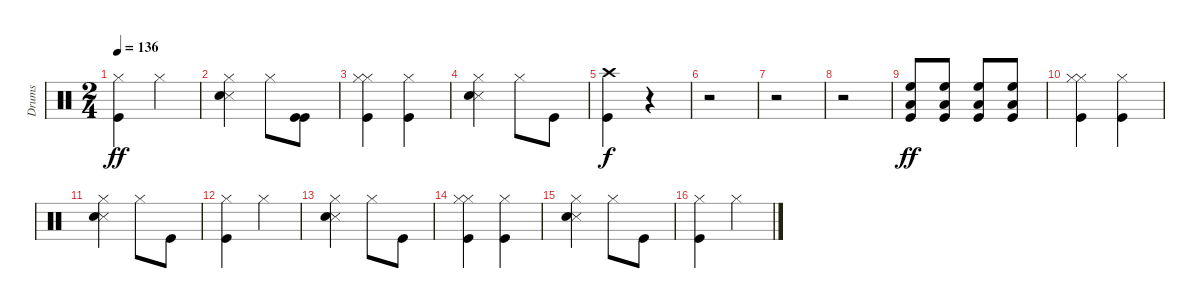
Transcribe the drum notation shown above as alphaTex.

\track ("Drums" "Drums") {instrument percussion}
\staff {score}
\articulation defaults
\ts (2 4)
\tempo 136
\clef neutral
\ks c
("Kick (hit)" "Hi-Hat (closed)").4{dy ff} "Hi-Hat (closed)".4 |
("Snare (side stick) 3" "Hi-Hat (closed)" "Snare (hit) 2").4 "Hi-Hat (closed)".8 ("Kick (hit)" "Kick (hit)").8 |
("Kick (hit)" "Hi-Hat (closed)" "Hi-Hat (closed)").4 ("Kick (hit)" "Hi-Hat (closed)").4 |
("Snare (side stick) 3" "Hi-Hat (closed)" "Snare (hit) 2").4 "Hi-Hat (closed)".8 "Kick (hit)".8 |
("Kick (hit)" "Crash high (hit)").4{dy f} r.4 |
r.2 |
r.2 |
r.2 |
("Kick (hit)" "Low Floor Tom (hit)" "High Floor Tom (hit)").8{dy ff} ("Kick (hit)" "Low Floor Tom (hit)" "High Floor Tom (hit)").8 ("Kick (hit)" "Low Floor Tom (hit)" "High Floor Tom (hit)").8 ("Kick (hit)" "High Floor Tom (hit)" "Low Floor Tom (hit)").8 |
("Kick (hit)" "Hi-Hat (closed)" "Hi-Hat (closed)").4 ("Kick (hit)" "Hi-Hat (closed)").4 |
("Snare (side stick) 3" "Hi-Hat (closed)" "Snare (hit) 2").4 "Hi-Hat (closed)".8 "Kick (hit)".8 |
("Kick (hit)" "Hi-Hat (closed)").4 "Hi-Hat (closed)".4 |
("Snare (side stick) 3" "Hi-Hat (closed)" "Snare (hit) 2").4 "Hi-Hat (closed)".8 "Kick (hit)".8 |
("Kick (hit)" "Hi-Hat (closed)" "Hi-Hat (closed)").4 ("Kick (hit)" "Hi-Hat (closed)").4 |
("Snare (side stick) 3" "Hi-Hat (closed)" "Snare (hit) 2").4 "Hi-Hat (closed)".8 "Kick (hit)".8 |
("Kick (hit)" "Hi-Hat (closed)").4 "Hi-Hat (closed)".4
